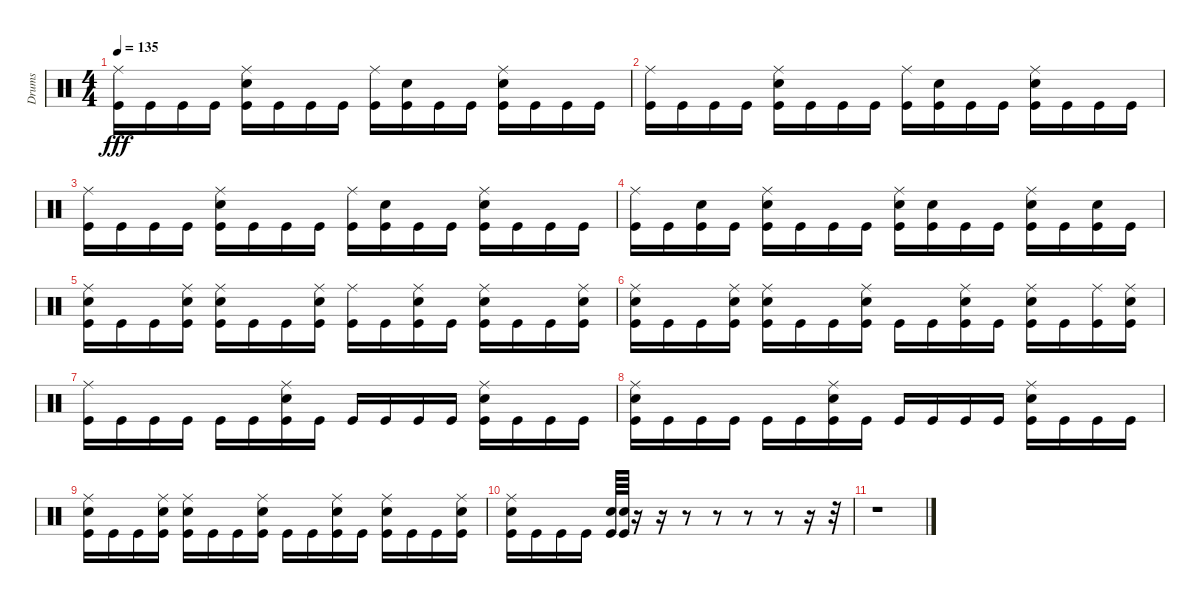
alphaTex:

\track ("Drums" "Drums") {instrument percussion}
\staff {score}
\articulation defaults
\ts (4 4)
\tempo 135
\clef neutral
\ks c
("Ride (middle)" "Kick (hit)").16{dy fff} "Kick (hit)".16 "Kick (hit)".16 "Kick (hit)".16 ("Ride (middle)" "Electric Snare (hit)" "Kick (hit)").16 "Kick (hit)".16 "Kick (hit)".16 "Kick (hit)".16 ("Ride (middle)" "Kick (hit)").16 ("Electric Snare (hit)" "Kick (hit)").16 "Kick (hit)".16 "Kick (hit)".16 ("Ride (middle)" "Electric Snare (hit)" "Kick (hit)").16 "Kick (hit)".16 "Kick (hit)".16 "Kick (hit)".16 |
("Ride (middle)" "Kick (hit)").16 "Kick (hit)".16 "Kick (hit)".16 "Kick (hit)".16 ("Ride (middle)" "Electric Snare (hit)" "Kick (hit)").16 "Kick (hit)".16 "Kick (hit)".16 "Kick (hit)".16 ("Ride (middle)" "Kick (hit)").16 ("Electric Snare (hit)" "Kick (hit)").16 "Kick (hit)".16 "Kick (hit)".16 ("Ride (middle)" "Electric Snare (hit)" "Kick (hit)").16 "Kick (hit)".16 "Kick (hit)".16 "Kick (hit)".16 |
("Ride (middle)" "Kick (hit)").16 "Kick (hit)".16 "Kick (hit)".16 "Kick (hit)".16 ("Ride (middle)" "Electric Snare (hit)" "Kick (hit)").16 "Kick (hit)".16 "Kick (hit)".16 "Kick (hit)".16 ("Ride (middle)" "Kick (hit)").16 ("Electric Snare (hit)" "Kick (hit)").16 "Kick (hit)".16 "Kick (hit)".16 ("Ride (middle)" "Electric Snare (hit)" "Kick (hit)").16 "Kick (hit)".16 "Kick (hit)".16 "Kick (hit)".16 |
("Ride (middle)" "Kick (hit)").16 "Kick (hit)".16 ("Electric Snare (hit)" "Kick (hit)").16 "Kick (hit)".16 ("Ride (middle)" "Electric Snare (hit)" "Kick (hit)").16 "Kick (hit)".16 "Kick (hit)".16 "Kick (hit)".16 ("Ride (middle)" "Electric Snare (hit)" "Kick (hit)").16 ("Electric Snare (hit)" "Kick (hit)").16 "Kick (hit)".16 "Kick (hit)".16 ("Ride (middle)" "Electric Snare (hit)" "Kick (hit)").16 "Kick (hit)".16 ("Electric Snare (hit)" "Kick (hit)").16 "Kick (hit)".16 |
("Ride (middle)" "Electric Snare (hit)" "Kick (hit)").16 "Kick (hit)".16 "Kick (hit)".16 ("Ride (middle)" "Electric Snare (hit)" "Kick (hit)").16 ("Ride (middle)" "Electric Snare (hit)" "Kick (hit)").16 "Kick (hit)".16 "Kick (hit)".16 ("Ride (middle)" "Electric Snare (hit)" "Kick (hit)").16 ("Ride (middle)" "Kick (hit)").16 "Kick (hit)".16 ("Ride (middle)" "Electric Snare (hit)" "Kick (hit)").16 "Kick (hit)".16 ("Ride (middle)" "Electric Snare (hit)" "Kick (hit)").16 "Kick (hit)".16 "Kick (hit)".16 ("Ride (middle)" "Electric Snare (hit)" "Kick (hit)").16 |
("Ride (middle)" "Electric Snare (hit)" "Kick (hit)").16 "Kick (hit)".16 "Kick (hit)".16 ("Ride (middle)" "Electric Snare (hit)" "Kick (hit)").16 ("Ride (middle)" "Electric Snare (hit)" "Kick (hit)").16 "Kick (hit)".16 "Kick (hit)".16 ("Ride (middle)" "Electric Snare (hit)" "Kick (hit)").16 "Kick (hit)".16 "Kick (hit)".16 ("Ride (middle)" "Electric Snare (hit)" "Kick (hit)").16 "Kick (hit)".16 ("Ride (middle)" "Electric Snare (hit)" "Kick (hit)").16 "Kick (hit)".16 ("Ride (middle)" "Kick (hit)").16 ("Ride (middle)" "Electric Snare (hit)" "Kick (hit)").16 |
("Ride (middle)" "Kick (hit)").16 "Kick (hit)".16 "Kick (hit)".16 "Kick (hit)".16 "Kick (hit)".16 "Kick (hit)".16 ("Ride (middle)" "Electric Snare (hit)" "Kick (hit)").16 "Kick (hit)".16 "Kick (hit)".16 "Kick (hit)".16 "Kick (hit)".16 "Kick (hit)".16 ("Ride (middle)" "Electric Snare (hit)" "Kick (hit)").16 "Kick (hit)".16 "Kick (hit)".16 "Kick (hit)".16 |
("Ride (middle)" "Electric Snare (hit)" "Kick (hit)").16 "Kick (hit)".16 "Kick (hit)".16 "Kick (hit)".16 "Kick (hit)".16 "Kick (hit)".16 ("Ride (middle)" "Electric Snare (hit)" "Kick (hit)").16 "Kick (hit)".16 "Kick (hit)".16 "Kick (hit)".16 "Kick (hit)".16 "Kick (hit)".16 ("Ride (middle)" "Electric Snare (hit)" "Kick (hit)").16 "Kick (hit)".16 "Kick (hit)".16 "Kick (hit)".16 |
("Ride (middle)" "Electric Snare (hit)" "Kick (hit)").16 "Kick (hit)".16 "Kick (hit)".16 ("Ride (middle)" "Electric Snare (hit)" "Kick (hit)").16 ("Ride (middle)" "Electric Snare (hit)" "Kick (hit)").16 "Kick (hit)".16 "Kick (hit)".16 ("Ride (middle)" "Electric Snare (hit)" "Kick (hit)").16 "Kick (hit)".16 "Kick (hit)".16 ("Ride (middle)" "Electric Snare (hit)" "Kick (hit)").16 "Kick (hit)".16 ("Ride (middle)" "Electric Snare (hit)" "Kick (hit)").16 "Kick (hit)".16 "Kick (hit)".16 ("Ride (middle)" "Electric Snare (hit)" "Kick (hit)").16 |
("Ride (middle)" "Electric Snare (hit)" "Kick (hit)").16 "Kick (hit)".16 "Kick (hit)".16 "Kick (hit)".16 ("Electric Snare (hit)" "Kick (hit)").64 ("Electric Snare (hit)" "Kick (hit)").64 r.16 r.16 r.8 r.8 r.8 r.8 r.16 r.32 |
r.1
